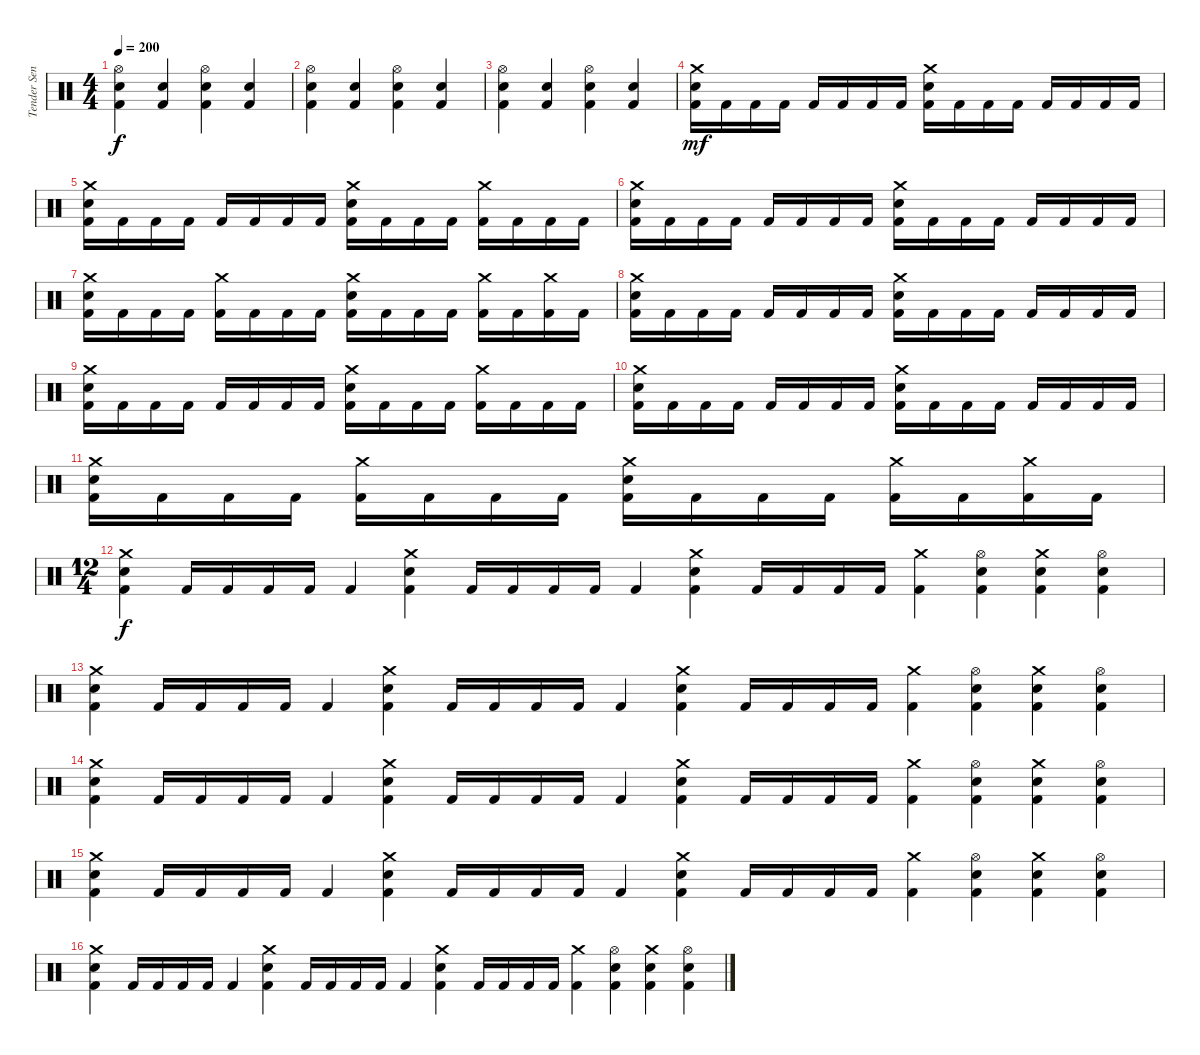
\track ("Tender Sender" "Tender Sen") {instrument percussion}
\staff {score}
\articulation defaults
\ts (4 4)
\tempo 200
\clef neutral
\ks c
("Kick (hit) 2" "Snare (hit) 2" "Hi-Hat (open)").4{dy f} ("Kick (hit) 2" "Snare (hit) 2").4 ("Kick (hit) 2" "Snare (hit) 2" "Hi-Hat (open)").4 ("Kick (hit) 2" "Snare (hit) 2").4 |
("Kick (hit) 2" "Snare (hit) 2" "Hi-Hat (open)").4 ("Kick (hit) 2" "Snare (hit) 2").4 ("Kick (hit) 2" "Snare (hit) 2" "Hi-Hat (open)").4 ("Kick (hit) 2" "Snare (hit) 2").4 |
("Kick (hit) 2" "Snare (hit) 2" "Hi-Hat (open)").4 ("Kick (hit) 2" "Snare (hit) 2").4 ("Kick (hit) 2" "Snare (hit) 2" "Hi-Hat (open)").4 ("Kick (hit) 2" "Snare (hit) 2").4 |
("Kick (hit) 2" "Snare (hit) 2" "Crash medium (hit)").16{dy mf} "Kick (hit) 2".16 "Kick (hit) 2".16 "Kick (hit) 2".16 "Kick (hit) 2".16 "Kick (hit) 2".16 "Kick (hit) 2".16 "Kick (hit) 2".16 ("Kick (hit) 2" "Snare (hit) 2" "Crash medium (hit)").16 "Kick (hit) 2".16 "Kick (hit) 2".16 "Kick (hit) 2".16 "Kick (hit) 2".16 "Kick (hit) 2".16 "Kick (hit) 2".16 "Kick (hit) 2".16 |
("Kick (hit) 2" "Snare (hit) 2" "Crash medium (hit)").16 "Kick (hit) 2".16 "Kick (hit) 2".16 "Kick (hit) 2".16 "Kick (hit) 2".16 "Kick (hit) 2".16 "Kick (hit) 2".16 "Kick (hit) 2".16 ("Kick (hit) 2" "Snare (hit) 2" "Crash medium (hit)").16 "Kick (hit) 2".16 "Kick (hit) 2".16 "Kick (hit) 2".16 ("Kick (hit) 2" "Crash medium (hit)").16 "Kick (hit) 2".16 "Kick (hit) 2".16 "Kick (hit) 2".16 |
("Kick (hit) 2" "Snare (hit) 2" "Crash medium (hit)").16 "Kick (hit) 2".16 "Kick (hit) 2".16 "Kick (hit) 2".16 "Kick (hit) 2".16 "Kick (hit) 2".16 "Kick (hit) 2".16 "Kick (hit) 2".16 ("Kick (hit) 2" "Snare (hit) 2" "Crash medium (hit)").16 "Kick (hit) 2".16 "Kick (hit) 2".16 "Kick (hit) 2".16 "Kick (hit) 2".16 "Kick (hit) 2".16 "Kick (hit) 2".16 "Kick (hit) 2".16 |
("Kick (hit) 2" "Snare (hit) 2" "Crash medium (hit)").16 "Kick (hit) 2".16 "Kick (hit) 2".16 "Kick (hit) 2".16 ("Kick (hit) 2" "Crash medium (hit)").16 "Kick (hit) 2".16 "Kick (hit) 2".16 "Kick (hit) 2".16 ("Kick (hit) 2" "Snare (hit) 2" "Crash medium (hit)").16 "Kick (hit) 2".16 "Kick (hit) 2".16 "Kick (hit) 2".16 ("Kick (hit) 2" "Crash medium (hit)").16 "Kick (hit) 2".16 ("Kick (hit) 2" "Crash medium (hit)").16 "Kick (hit) 2".16 |
("Kick (hit) 2" "Snare (hit) 2" "Crash medium (hit)").16 "Kick (hit) 2".16 "Kick (hit) 2".16 "Kick (hit) 2".16 "Kick (hit) 2".16 "Kick (hit) 2".16 "Kick (hit) 2".16 "Kick (hit) 2".16 ("Kick (hit) 2" "Snare (hit) 2" "Crash medium (hit)").16 "Kick (hit) 2".16 "Kick (hit) 2".16 "Kick (hit) 2".16 "Kick (hit) 2".16 "Kick (hit) 2".16 "Kick (hit) 2".16 "Kick (hit) 2".16 |
("Kick (hit) 2" "Snare (hit) 2" "Crash medium (hit)").16 "Kick (hit) 2".16 "Kick (hit) 2".16 "Kick (hit) 2".16 "Kick (hit) 2".16 "Kick (hit) 2".16 "Kick (hit) 2".16 "Kick (hit) 2".16 ("Kick (hit) 2" "Snare (hit) 2" "Crash medium (hit)").16 "Kick (hit) 2".16 "Kick (hit) 2".16 "Kick (hit) 2".16 ("Kick (hit) 2" "Crash medium (hit)").16 "Kick (hit) 2".16 "Kick (hit) 2".16 "Kick (hit) 2".16 |
("Kick (hit) 2" "Snare (hit) 2" "Crash medium (hit)").16 "Kick (hit) 2".16 "Kick (hit) 2".16 "Kick (hit) 2".16 "Kick (hit) 2".16 "Kick (hit) 2".16 "Kick (hit) 2".16 "Kick (hit) 2".16 ("Kick (hit) 2" "Snare (hit) 2" "Crash medium (hit)").16 "Kick (hit) 2".16 "Kick (hit) 2".16 "Kick (hit) 2".16 "Kick (hit) 2".16 "Kick (hit) 2".16 "Kick (hit) 2".16 "Kick (hit) 2".16 |
("Kick (hit) 2" "Snare (hit) 2" "Crash medium (hit)").16 "Kick (hit) 2".16 "Kick (hit) 2".16 "Kick (hit) 2".16 ("Kick (hit) 2" "Crash medium (hit)").16 "Kick (hit) 2".16 "Kick (hit) 2".16 "Kick (hit) 2".16 ("Kick (hit) 2" "Snare (hit) 2" "Crash medium (hit)").16 "Kick (hit) 2".16 "Kick (hit) 2".16 "Kick (hit) 2".16 ("Kick (hit) 2" "Crash medium (hit)").16 "Kick (hit) 2".16 ("Kick (hit) 2" "Crash medium (hit)").16 "Kick (hit) 2".16 |
\ts (12 4)
("Kick (hit) 2" "Snare (hit) 2" "Crash medium (hit)").4{dy f} "Kick (hit) 2".16 "Kick (hit) 2".16 "Kick (hit) 2".16 "Kick (hit) 2".16 "Kick (hit) 2".4 ("Kick (hit) 2" "Snare (hit) 2" "Crash medium (hit)").4 "Kick (hit) 2".16 "Kick (hit) 2".16 "Kick (hit) 2".16 "Kick (hit) 2".16 "Kick (hit) 2".4 ("Kick (hit) 2" "Snare (hit) 2" "Crash medium (hit)").4 "Kick (hit) 2".16 "Kick (hit) 2".16 "Kick (hit) 2".16 "Kick (hit) 2".16 ("Kick (hit) 2" "Crash medium (hit)").4 ("Kick (hit) 2" "Snare (hit) 2" "Hi-Hat (open)").4 ("Kick (hit) 2" "Snare (hit) 2" "Crash medium (hit)").4 ("Kick (hit) 2" "Snare (hit) 2" "Hi-Hat (open)").4 |
("Kick (hit) 2" "Snare (hit) 2" "Crash medium (hit)").4 "Kick (hit) 2".16 "Kick (hit) 2".16 "Kick (hit) 2".16 "Kick (hit) 2".16 "Kick (hit) 2".4 ("Kick (hit) 2" "Snare (hit) 2" "Crash medium (hit)").4 "Kick (hit) 2".16 "Kick (hit) 2".16 "Kick (hit) 2".16 "Kick (hit) 2".16 "Kick (hit) 2".4 ("Kick (hit) 2" "Snare (hit) 2" "Crash medium (hit)").4 "Kick (hit) 2".16 "Kick (hit) 2".16 "Kick (hit) 2".16 "Kick (hit) 2".16 ("Kick (hit) 2" "Crash medium (hit)").4 ("Kick (hit) 2" "Snare (hit) 2" "Hi-Hat (open)").4 ("Kick (hit) 2" "Snare (hit) 2" "Crash medium (hit)").4 ("Kick (hit) 2" "Snare (hit) 2" "Hi-Hat (open)").4 |
("Kick (hit) 2" "Snare (hit) 2" "Crash medium (hit)").4 "Kick (hit) 2".16 "Kick (hit) 2".16 "Kick (hit) 2".16 "Kick (hit) 2".16 "Kick (hit) 2".4 ("Kick (hit) 2" "Snare (hit) 2" "Crash medium (hit)").4 "Kick (hit) 2".16 "Kick (hit) 2".16 "Kick (hit) 2".16 "Kick (hit) 2".16 "Kick (hit) 2".4 ("Kick (hit) 2" "Snare (hit) 2" "Crash medium (hit)").4 "Kick (hit) 2".16 "Kick (hit) 2".16 "Kick (hit) 2".16 "Kick (hit) 2".16 ("Kick (hit) 2" "Crash medium (hit)").4 ("Kick (hit) 2" "Snare (hit) 2" "Hi-Hat (open)").4 ("Kick (hit) 2" "Snare (hit) 2" "Crash medium (hit)").4 ("Kick (hit) 2" "Snare (hit) 2" "Hi-Hat (open)").4 |
("Kick (hit) 2" "Snare (hit) 2" "Crash medium (hit)").4 "Kick (hit) 2".16 "Kick (hit) 2".16 "Kick (hit) 2".16 "Kick (hit) 2".16 "Kick (hit) 2".4 ("Kick (hit) 2" "Snare (hit) 2" "Crash medium (hit)").4 "Kick (hit) 2".16 "Kick (hit) 2".16 "Kick (hit) 2".16 "Kick (hit) 2".16 "Kick (hit) 2".4 ("Kick (hit) 2" "Snare (hit) 2" "Crash medium (hit)").4 "Kick (hit) 2".16 "Kick (hit) 2".16 "Kick (hit) 2".16 "Kick (hit) 2".16 ("Kick (hit) 2" "Crash medium (hit)").4 ("Kick (hit) 2" "Snare (hit) 2" "Hi-Hat (open)").4 ("Kick (hit) 2" "Snare (hit) 2" "Crash medium (hit)").4 ("Kick (hit) 2" "Snare (hit) 2" "Hi-Hat (open)").4 |
("Kick (hit) 2" "Snare (hit) 2" "Crash medium (hit)").4 "Kick (hit) 2".16 "Kick (hit) 2".16 "Kick (hit) 2".16 "Kick (hit) 2".16 "Kick (hit) 2".4 ("Kick (hit) 2" "Snare (hit) 2" "Crash medium (hit)").4 "Kick (hit) 2".16 "Kick (hit) 2".16 "Kick (hit) 2".16 "Kick (hit) 2".16 "Kick (hit) 2".4 ("Kick (hit) 2" "Snare (hit) 2" "Crash medium (hit)").4 "Kick (hit) 2".16 "Kick (hit) 2".16 "Kick (hit) 2".16 "Kick (hit) 2".16 ("Kick (hit) 2" "Crash medium (hit)").4 ("Kick (hit) 2" "Snare (hit) 2" "Hi-Hat (open)").4 ("Kick (hit) 2" "Snare (hit) 2" "Crash medium (hit)").4 ("Kick (hit) 2" "Snare (hit) 2" "Hi-Hat (open)").4
